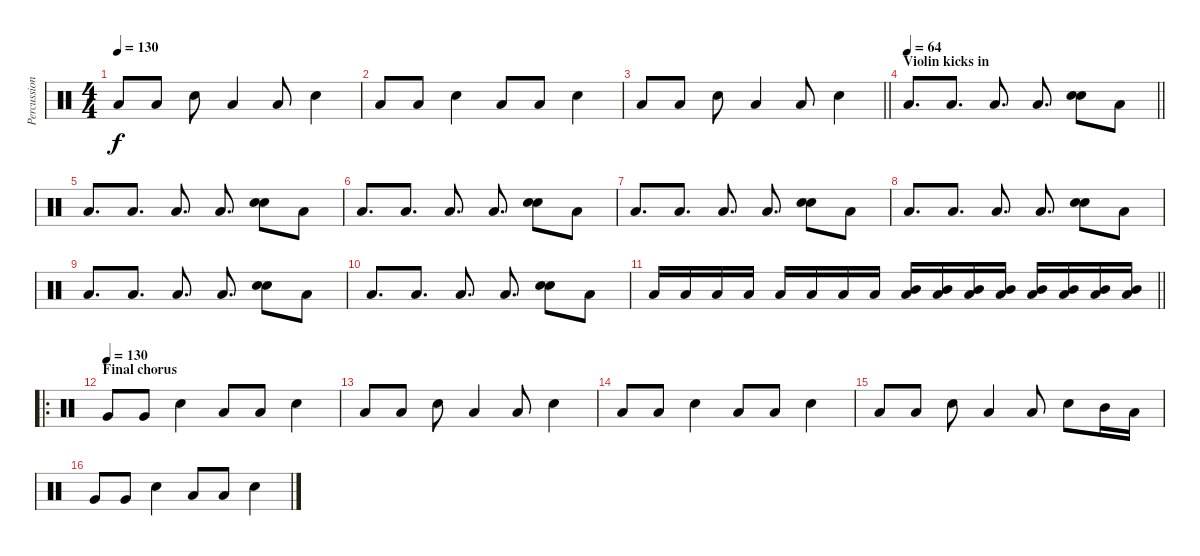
\track ("Percussion 1" "Percussion") {instrument percussion}
\staff {score}
\articulation defaults
\ts (4 4)
\tempo 130
\clef neutral
\ks c "Low Floor Tom (hit)".8{dy f} "Low Floor Tom (hit)".8 "Electric Snare (hit)".8 "Low Floor Tom (hit)".4 "Low Floor Tom (hit)".8 "Electric Snare (hit)".4
|
"Low Floor Tom (hit)".8 "Low Floor Tom (hit)".8 "Electric Snare (hit)".4 "Low Floor Tom (hit)".8 "Low Floor Tom (hit)".8 "Electric Snare (hit)".4 |
\barLineRight lightlight "Low Floor Tom (hit)".8 "Low Floor Tom (hit)".8 "Electric Snare (hit)".8 "Low Floor Tom (hit)".4 "Low Floor Tom (hit)".8 "Electric Snare (hit)".4
|
\section ("" "Violin kicks in")
\tempo 64
\barLineRight lightlight "Low Floor Tom (hit)".8{d} "Low Floor Tom (hit)".8{d} "Low Floor Tom (hit)".8{d} "Low Floor Tom (hit)".8{d}
("Electric Snare (hit)" "Snare (hit) 2").8 "Low Floor Tom (hit)".8 |
"Low Floor Tom (hit)".8{d} "Low Floor Tom (hit)".8{d} "Low Floor Tom (hit)".8{d} "Low Floor Tom (hit)".8{d} ("Electric Snare (hit)" "Snare (hit) 2").8 "Low Floor Tom (hit)".8 |
"Low Floor Tom (hit)".8{d} "Low Floor Tom (hit)".8{d} "Low Floor Tom (hit)".8{d} "Low Floor Tom (hit)".8{d} ("Electric Snare (hit)" "Snare (hit) 2").8 "Low Floor Tom (hit)".8 |
"Low Floor Tom (hit)".8{d} "Low Floor Tom (hit)".8{d} "Low Floor Tom (hit)".8{d} "Low Floor Tom (hit)".8{d} ("Electric Snare (hit)" "Snare (hit) 2").8 "Low Floor Tom (hit)".8 |
"Low Floor Tom (hit)".8{d} "Low Floor Tom (hit)".8{d} "Low Floor Tom (hit)".8{d} "Low Floor Tom (hit)".8{d} ("Electric Snare (hit)" "Snare (hit) 2").8 "Low Floor Tom (hit)".8 |
"Low Floor Tom (hit)".8{d} "Low Floor Tom (hit)".8{d} "Low Floor Tom (hit)".8{d} "Low Floor Tom (hit)".8{d} ("Electric Snare (hit)" "Snare (hit) 2").8 "Low Floor Tom (hit)".8 |
"Low Floor Tom (hit)".8{d} "Low Floor Tom (hit)".8{d} "Low Floor Tom (hit)".8{d} "Low Floor Tom (hit)".8{d} ("Electric Snare (hit)" "Snare (hit) 2").8 "Low Floor Tom (hit)".8 |
\barLineRight lightlight "Low Floor Tom (hit)".16 "Low Floor Tom (hit)".16 "Low Floor Tom (hit)".16 "Low Floor Tom (hit)".16 "Low Floor Tom (hit)".16 "Low Floor Tom (hit)".16 "Low Floor Tom (hit)".16 "Low Floor Tom (hit)".16
("Mid Tom (hit)" "Low Floor Tom (hit)").16 ("Mid Tom (hit)" "Low Floor Tom (hit)").16 ("Mid Tom (hit)" "Low Floor Tom (hit)").16 ("Mid Tom (hit)" "Low Floor Tom (hit)").16 ("Mid Tom (hit)" "Low Floor Tom (hit)").16 ("Mid Tom (hit)" "Low Floor Tom (hit)").16 ("Mid Tom (hit)" "Low Floor Tom (hit)").16 ("Mid Tom (hit)" "Low Floor Tom (hit)").16 |
\ro
\section ("" "Final chorus")
\tempo (130)
"Very Low Tom (hit)".8 "Very Low Tom (hit)".8 "Electric Snare (hit)".4 "Low Floor Tom (hit)".8 "Low Floor Tom (hit)".8 "Electric Snare (hit)".4 |
"Low Floor Tom (hit)".8 "Low Floor Tom (hit)".8 "Electric Snare (hit)".8 "Low Floor Tom (hit)".4 "Low Floor Tom (hit)".8 "Electric Snare (hit)".4 |
"Low Floor Tom (hit)".8 "Low Floor Tom (hit)".8 "Electric Snare (hit)".4 "Low Floor Tom (hit)".8 "Low Floor Tom (hit)".8 "Electric Snare (hit)".4 |
"Low Floor Tom (hit)".8 "Low Floor Tom (hit)".8 "Electric Snare (hit)".8 "Low Floor Tom (hit)".4 "Low Floor Tom (hit)".8 "Electric Snare (hit)".8 "Mid Tom (hit)".16 "Low Tom (hit)".16 |
"Very Low Tom (hit)".8 "Very Low Tom (hit)".8 "Electric Snare (hit)".4 "Low Floor Tom (hit)".8 "Low Floor Tom (hit)".8 "Electric Snare (hit)".4
